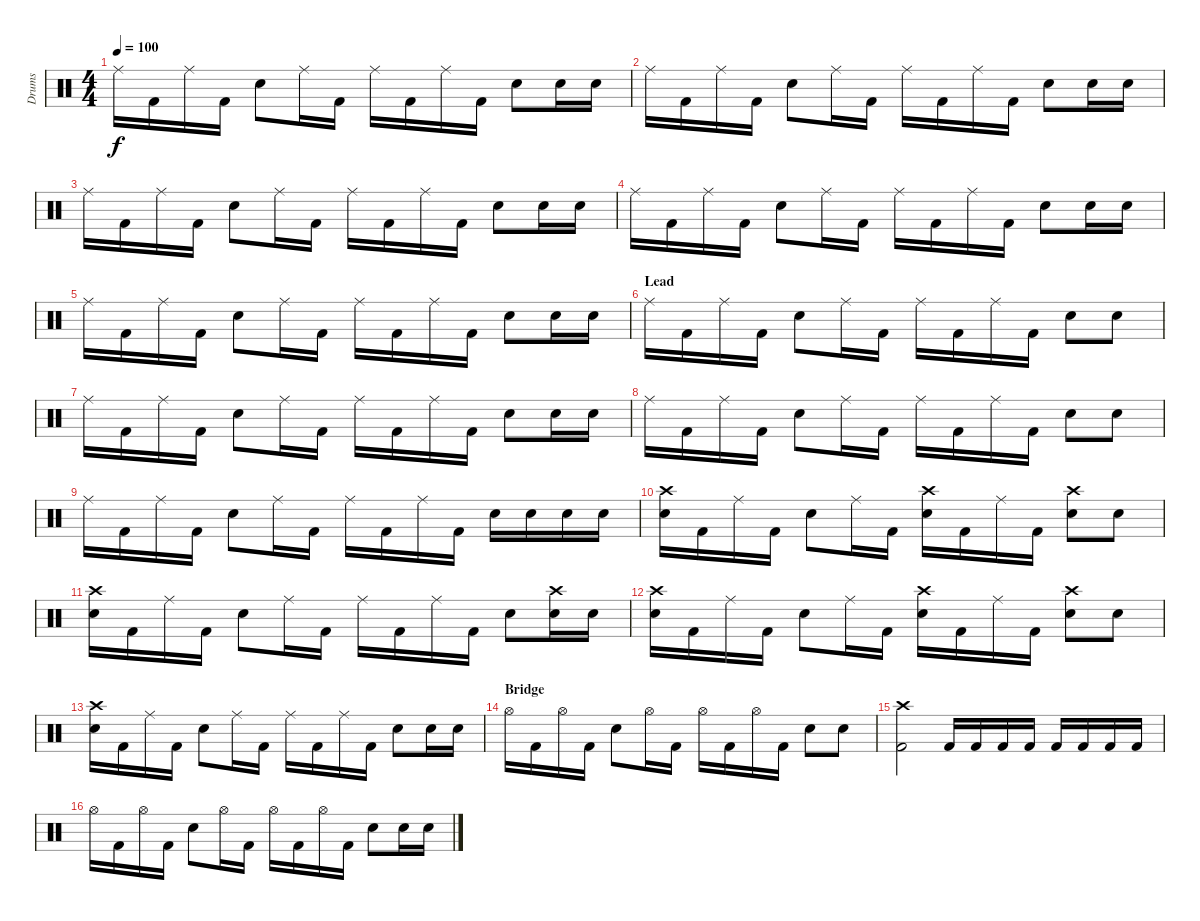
\track ("Drums" "Drums") {instrument percussion}
\staff {score}
\articulation defaults
\ts (4 4)
\tempo 100
\clef neutral
\ks c "Ride (middle)".16{dy f} "Kick (hit) 2".16 "Ride (middle)".16 "Kick (hit) 2".16 "Snare (hit) 2".8 "Ride (middle)".16 "Kick (hit) 2".16 "Ride (middle)".16 "Kick (hit) 2".16 "Ride (middle)".16 "Kick (hit) 2".16 "Snare (hit) 2".8 "Snare (hit) 2".16 "Snare (hit) 2".16
|
"Ride (middle)".16 "Kick (hit) 2".16 "Ride (middle)".16 "Kick (hit) 2".16 "Snare (hit) 2".8 "Ride (middle)".16 "Kick (hit) 2".16 "Ride (middle)".16 "Kick (hit) 2".16 "Ride (middle)".16 "Kick (hit) 2".16 "Snare (hit) 2".8 "Snare (hit) 2".16 "Snare (hit) 2".16 |
"Ride (middle)".16 "Kick (hit) 2".16 "Ride (middle)".16 "Kick (hit) 2".16 "Snare (hit) 2".8 "Ride (middle)".16 "Kick (hit) 2".16 "Ride (middle)".16 "Kick (hit) 2".16 "Ride (middle)".16 "Kick (hit) 2".16 "Snare (hit) 2".8 "Snare (hit) 2".16 "Snare (hit) 2".16 |
"Ride (middle)".16 "Kick (hit) 2".16 "Ride (middle)".16 "Kick (hit) 2".16 "Snare (hit) 2".8 "Ride (middle)".16 "Kick (hit) 2".16 "Ride (middle)".16 "Kick (hit) 2".16 "Ride (middle)".16 "Kick (hit) 2".16 "Snare (hit) 2".8 "Snare (hit) 2".16 "Snare (hit) 2".16 |
"Ride (middle)".16 "Kick (hit) 2".16 "Ride (middle)".16 "Kick (hit) 2".16 "Snare (hit) 2".8 "Ride (middle)".16 "Kick (hit) 2".16 "Ride (middle)".16 "Kick (hit) 2".16 "Ride (middle)".16 "Kick (hit) 2".16 "Snare (hit) 2".8 "Snare (hit) 2".16 "Snare (hit) 2".16 |
\section ("" "Lead")
"Ride (middle)".16 "Kick (hit) 2".16 "Ride (middle)".16 "Kick (hit) 2".16 "Snare (hit) 2".8 "Ride (middle)".16 "Kick (hit) 2".16 "Ride (middle)".16 "Kick (hit) 2".16 "Ride (middle)".16 "Kick (hit) 2".16 "Snare (hit) 2".8 "Snare (hit) 2".8 |
"Ride (middle)".16 "Kick (hit) 2".16 "Ride (middle)".16 "Kick (hit) 2".16 "Snare (hit) 2".8 "Ride (middle)".16 "Kick (hit) 2".16 "Ride (middle)".16 "Kick (hit) 2".16 "Ride (middle)".16 "Kick (hit) 2".16 "Snare (hit) 2".8 "Snare (hit) 2".16 "Snare (hit) 2".16 |
"Ride (middle)".16 "Kick (hit) 2".16 "Ride (middle)".16 "Kick (hit) 2".16 "Snare (hit) 2".8 "Ride (middle)".16 "Kick (hit) 2".16 "Ride (middle)".16 "Kick (hit) 2".16 "Ride (middle)".16 "Kick (hit) 2".16 "Snare (hit) 2".8 "Snare (hit) 2".8 |
"Ride (middle)".16 "Kick (hit) 2".16 "Ride (middle)".16 "Kick (hit) 2".16 "Snare (hit) 2".8 "Ride (middle)".16 "Kick (hit) 2".16 "Ride (middle)".16 "Kick (hit) 2".16 "Ride (middle)".16 "Kick (hit) 2".16 "Snare (hit) 2".16 "Snare (hit) 2".16 "Snare (hit) 2".16 "Snare (hit) 2".16 |
("Crash high (hit)" "Snare (hit) 2").16 "Kick (hit) 2".16 "Ride (middle)".16 "Kick (hit) 2".16 "Snare (hit) 2".8 "Ride (middle)".16 "Kick (hit) 2".16 ("Crash high (hit)" "Snare (hit) 2").16 "Kick (hit) 2".16 "Ride (middle)".16 "Kick (hit) 2".16 ("Crash high (hit)" "Snare (hit) 2").8 "Snare (hit) 2".8 |
("Crash high (hit)" "Snare (hit) 2").16 "Kick (hit) 2".16 "Ride (middle)".16 "Kick (hit) 2".16 "Snare (hit) 2".8 "Ride (middle)".16 "Kick (hit) 2".16 "Ride (middle)".16 "Kick (hit) 2".16 "Ride (middle)".16 "Kick (hit) 2".16 "Snare (hit) 2".8 ("Crash high (hit)" "Snare (hit) 2").16 "Snare (hit) 2".16 |
("Crash high (hit)" "Snare (hit) 2").16 "Kick (hit) 2".16 "Ride (middle)".16 "Kick (hit) 2".16 "Snare (hit) 2".8 "Ride (middle)".16 "Kick (hit) 2".16 ("Crash high (hit)" "Snare (hit) 2").16 "Kick (hit) 2".16 "Ride (middle)".16 "Kick (hit) 2".16 ("Crash high (hit)" "Snare (hit) 2").8 "Snare (hit) 2".8 |
("Crash high (hit)" "Snare (hit) 2").16 "Kick (hit) 2".16 "Ride (middle)".16 "Kick (hit) 2".16 "Snare (hit) 2".8 "Ride (middle)".16 "Kick (hit) 2".16 "Ride (middle)".16 "Kick (hit) 2".16 "Ride (middle)".16 "Kick (hit) 2".16 "Snare (hit) 2".8 "Snare (hit) 2".16 "Snare (hit) 2".16 |
\section ("" "Bridge")
"Hi-Hat (open)".16 "Kick (hit) 2".16 "Hi-Hat (open)".16 "Kick (hit) 2".16 "Snare (hit) 2".8 "Hi-Hat (open)".16 "Kick (hit) 2".16 "Hi-Hat (open)".16 "Kick (hit) 2".16 "Hi-Hat (open)".16 "Kick (hit) 2".16 "Snare (hit) 2".8 "Snare (hit) 2".8 |
("Crash high (hit)" "Kick (hit) 2").2 "Kick (hit) 2".16 "Kick (hit) 2".16 "Kick (hit) 2".16 "Kick (hit) 2".16 "Kick (hit) 2".16 "Kick (hit) 2".16 "Kick (hit) 2".16 "Kick (hit) 2".16 |
"Hi-Hat (open)".16 "Kick (hit) 2".16 "Hi-Hat (open)".16 "Kick (hit) 2".16 "Snare (hit) 2".8 "Hi-Hat (open)".16 "Kick (hit) 2".16 "Hi-Hat (open)".16 "Kick (hit) 2".16 "Hi-Hat (open)".16 "Kick (hit) 2".16 "Snare (hit) 2".8 "Snare (hit) 2".16 "Snare (hit) 2".16
